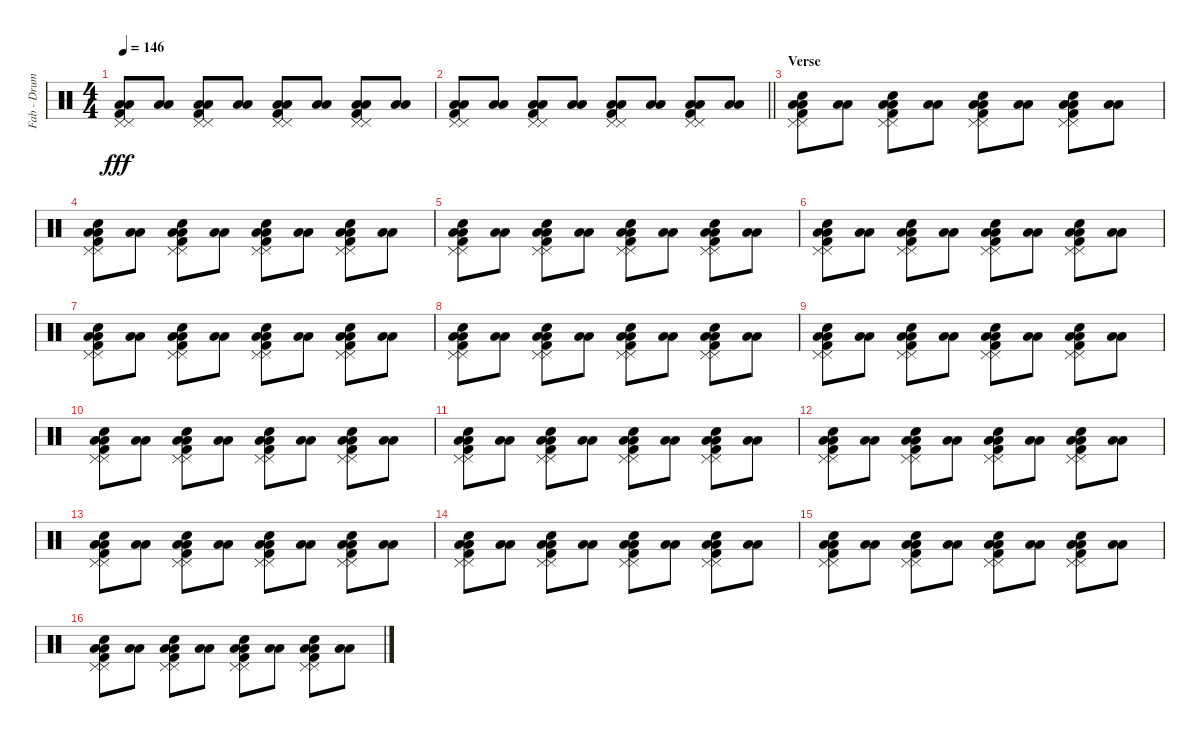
\track ("Fab - Drums MIDI" "Fab - Drum") {instrument percussion}
\staff {score}
\articulation defaults
\ts (4 4)
\tempo 146
\clef neutral
\ks c
("Low Floor Tom (hit)" "Low Floor Tom (hit)" "Kick (hit) 2" "Pedal Hi-Hat (hit)" "Pedal Hi-Hat (hit)").8{dy fff} ("Low Floor Tom (hit)" "Low Floor Tom (hit)").8 ("Low Floor Tom (hit)" "Low Floor Tom (hit)" "Kick (hit) 2" "Pedal Hi-Hat (hit)" "Pedal Hi-Hat (hit)").8 ("Low Floor Tom (hit)" "Low Floor Tom (hit)").8 ("Low Floor Tom (hit)" "Low Floor Tom (hit)" "Kick (hit) 2" "Pedal Hi-Hat (hit)" "Pedal Hi-Hat (hit)").8 ("Low Floor Tom (hit)" "Low Floor Tom (hit)").8 ("Low Floor Tom (hit)" "Low Floor Tom (hit)" "Kick (hit) 2" "Pedal Hi-Hat (hit)" "Pedal Hi-Hat (hit)").8 ("Low Floor Tom (hit)" "Low Floor Tom (hit)").8 |
\barLineRight lightlight
("Low Floor Tom (hit)" "Low Floor Tom (hit)" "Kick (hit) 2" "Pedal Hi-Hat (hit)" "Pedal Hi-Hat (hit)").8 ("Low Floor Tom (hit)" "Low Floor Tom (hit)").8 ("Low Floor Tom (hit)" "Low Floor Tom (hit)" "Kick (hit) 2" "Pedal Hi-Hat (hit)" "Pedal Hi-Hat (hit)").8 ("Low Floor Tom (hit)" "Low Floor Tom (hit)").8 ("Low Floor Tom (hit)" "Low Floor Tom (hit)" "Kick (hit) 2" "Pedal Hi-Hat (hit)" "Pedal Hi-Hat (hit)").8 ("Low Floor Tom (hit)" "Low Floor Tom (hit)").8 ("Low Floor Tom (hit)" "Low Floor Tom (hit)" "Kick (hit) 2" "Pedal Hi-Hat (hit)" "Pedal Hi-Hat (hit)").8 ("Low Floor Tom (hit)" "Low Floor Tom (hit)").8 |
\section ("" "Verse")
("Low Floor Tom (hit)" "Pedal Hi-Hat (hit)" "Snare (hit) 2" "Kick (hit) 2" "Pedal Hi-Hat (hit)" "Low Floor Tom (hit)").8 ("Low Floor Tom (hit)" "Low Floor Tom (hit)").8 ("Low Floor Tom (hit)" "Pedal Hi-Hat (hit)" "Snare (hit) 2" "Kick (hit) 2" "Pedal Hi-Hat (hit)" "Low Floor Tom (hit)").8 ("Low Floor Tom (hit)" "Low Floor Tom (hit)").8 ("Low Floor Tom (hit)" "Pedal Hi-Hat (hit)" "Snare (hit) 2" "Kick (hit) 2" "Pedal Hi-Hat (hit)" "Low Floor Tom (hit)").8 ("Low Floor Tom (hit)" "Low Floor Tom (hit)").8 ("Low Floor Tom (hit)" "Pedal Hi-Hat (hit)" "Snare (hit) 2" "Kick (hit) 2" "Pedal Hi-Hat (hit)" "Low Floor Tom (hit)").8 ("Low Floor Tom (hit)" "Low Floor Tom (hit)").8 |
("Low Floor Tom (hit)" "Pedal Hi-Hat (hit)" "Snare (hit) 2" "Kick (hit) 2" "Pedal Hi-Hat (hit)" "Low Floor Tom (hit)").8 ("Low Floor Tom (hit)" "Low Floor Tom (hit)").8 ("Low Floor Tom (hit)" "Pedal Hi-Hat (hit)" "Snare (hit) 2" "Kick (hit) 2" "Pedal Hi-Hat (hit)" "Low Floor Tom (hit)").8 ("Low Floor Tom (hit)" "Low Floor Tom (hit)").8 ("Low Floor Tom (hit)" "Pedal Hi-Hat (hit)" "Snare (hit) 2" "Kick (hit) 2" "Pedal Hi-Hat (hit)" "Low Floor Tom (hit)").8 ("Low Floor Tom (hit)" "Low Floor Tom (hit)").8 ("Low Floor Tom (hit)" "Pedal Hi-Hat (hit)" "Snare (hit) 2" "Kick (hit) 2" "Pedal Hi-Hat (hit)" "Low Floor Tom (hit)").8 ("Low Floor Tom (hit)" "Low Floor Tom (hit)").8 |
("Low Floor Tom (hit)" "Pedal Hi-Hat (hit)" "Snare (hit) 2" "Kick (hit) 2" "Pedal Hi-Hat (hit)" "Low Floor Tom (hit)").8 ("Low Floor Tom (hit)" "Low Floor Tom (hit)").8 ("Low Floor Tom (hit)" "Pedal Hi-Hat (hit)" "Snare (hit) 2" "Kick (hit) 2" "Pedal Hi-Hat (hit)" "Low Floor Tom (hit)").8 ("Low Floor Tom (hit)" "Low Floor Tom (hit)").8 ("Low Floor Tom (hit)" "Pedal Hi-Hat (hit)" "Snare (hit) 2" "Kick (hit) 2" "Pedal Hi-Hat (hit)" "Low Floor Tom (hit)").8 ("Low Floor Tom (hit)" "Low Floor Tom (hit)").8 ("Low Floor Tom (hit)" "Pedal Hi-Hat (hit)" "Snare (hit) 2" "Kick (hit) 2" "Pedal Hi-Hat (hit)" "Low Floor Tom (hit)").8 ("Low Floor Tom (hit)" "Low Floor Tom (hit)").8 |
("Low Floor Tom (hit)" "Pedal Hi-Hat (hit)" "Snare (hit) 2" "Kick (hit) 2" "Pedal Hi-Hat (hit)" "Low Floor Tom (hit)").8 ("Low Floor Tom (hit)" "Low Floor Tom (hit)").8 ("Low Floor Tom (hit)" "Pedal Hi-Hat (hit)" "Snare (hit) 2" "Kick (hit) 2" "Pedal Hi-Hat (hit)" "Low Floor Tom (hit)").8 ("Low Floor Tom (hit)" "Low Floor Tom (hit)").8 ("Low Floor Tom (hit)" "Pedal Hi-Hat (hit)" "Snare (hit) 2" "Kick (hit) 2" "Pedal Hi-Hat (hit)" "Low Floor Tom (hit)").8 ("Low Floor Tom (hit)" "Low Floor Tom (hit)").8 ("Low Floor Tom (hit)" "Pedal Hi-Hat (hit)" "Snare (hit) 2" "Kick (hit) 2" "Pedal Hi-Hat (hit)" "Low Floor Tom (hit)").8 ("Low Floor Tom (hit)" "Low Floor Tom (hit)").8 |
("Low Floor Tom (hit)" "Pedal Hi-Hat (hit)" "Snare (hit) 2" "Kick (hit) 2" "Pedal Hi-Hat (hit)" "Low Floor Tom (hit)").8 ("Low Floor Tom (hit)" "Low Floor Tom (hit)").8 ("Low Floor Tom (hit)" "Pedal Hi-Hat (hit)" "Snare (hit) 2" "Kick (hit) 2" "Pedal Hi-Hat (hit)" "Low Floor Tom (hit)").8 ("Low Floor Tom (hit)" "Low Floor Tom (hit)").8 ("Low Floor Tom (hit)" "Pedal Hi-Hat (hit)" "Snare (hit) 2" "Kick (hit) 2" "Pedal Hi-Hat (hit)" "Low Floor Tom (hit)").8 ("Low Floor Tom (hit)" "Low Floor Tom (hit)").8 ("Low Floor Tom (hit)" "Pedal Hi-Hat (hit)" "Snare (hit) 2" "Kick (hit) 2" "Pedal Hi-Hat (hit)" "Low Floor Tom (hit)").8 ("Low Floor Tom (hit)" "Low Floor Tom (hit)").8 |
("Low Floor Tom (hit)" "Pedal Hi-Hat (hit)" "Snare (hit) 2" "Kick (hit) 2" "Pedal Hi-Hat (hit)" "Low Floor Tom (hit)").8 ("Low Floor Tom (hit)" "Low Floor Tom (hit)").8 ("Low Floor Tom (hit)" "Pedal Hi-Hat (hit)" "Snare (hit) 2" "Kick (hit) 2" "Pedal Hi-Hat (hit)" "Low Floor Tom (hit)").8 ("Low Floor Tom (hit)" "Low Floor Tom (hit)").8 ("Low Floor Tom (hit)" "Pedal Hi-Hat (hit)" "Snare (hit) 2" "Kick (hit) 2" "Pedal Hi-Hat (hit)" "Low Floor Tom (hit)").8 ("Low Floor Tom (hit)" "Low Floor Tom (hit)").8 ("Low Floor Tom (hit)" "Pedal Hi-Hat (hit)" "Snare (hit) 2" "Kick (hit) 2" "Pedal Hi-Hat (hit)" "Low Floor Tom (hit)").8 ("Low Floor Tom (hit)" "Low Floor Tom (hit)").8 |
("Low Floor Tom (hit)" "Pedal Hi-Hat (hit)" "Snare (hit) 2" "Kick (hit) 2" "Pedal Hi-Hat (hit)" "Low Floor Tom (hit)").8 ("Low Floor Tom (hit)" "Low Floor Tom (hit)").8 ("Low Floor Tom (hit)" "Pedal Hi-Hat (hit)" "Snare (hit) 2" "Kick (hit) 2" "Pedal Hi-Hat (hit)" "Low Floor Tom (hit)").8 ("Low Floor Tom (hit)" "Low Floor Tom (hit)").8 ("Low Floor Tom (hit)" "Pedal Hi-Hat (hit)" "Snare (hit) 2" "Kick (hit) 2" "Pedal Hi-Hat (hit)" "Low Floor Tom (hit)").8 ("Low Floor Tom (hit)" "Low Floor Tom (hit)").8 ("Low Floor Tom (hit)" "Pedal Hi-Hat (hit)" "Snare (hit) 2" "Kick (hit) 2" "Pedal Hi-Hat (hit)" "Low Floor Tom (hit)").8 ("Low Floor Tom (hit)" "Low Floor Tom (hit)").8 |
("Low Floor Tom (hit)" "Pedal Hi-Hat (hit)" "Snare (hit) 2" "Kick (hit) 2" "Pedal Hi-Hat (hit)" "Low Floor Tom (hit)").8 ("Low Floor Tom (hit)" "Low Floor Tom (hit)").8 ("Low Floor Tom (hit)" "Pedal Hi-Hat (hit)" "Snare (hit) 2" "Kick (hit) 2" "Pedal Hi-Hat (hit)" "Low Floor Tom (hit)").8 ("Low Floor Tom (hit)" "Low Floor Tom (hit)").8 ("Low Floor Tom (hit)" "Pedal Hi-Hat (hit)" "Snare (hit) 2" "Kick (hit) 2" "Pedal Hi-Hat (hit)" "Low Floor Tom (hit)").8 ("Low Floor Tom (hit)" "Low Floor Tom (hit)").8 ("Low Floor Tom (hit)" "Pedal Hi-Hat (hit)" "Snare (hit) 2" "Kick (hit) 2" "Pedal Hi-Hat (hit)" "Low Floor Tom (hit)").8 ("Low Floor Tom (hit)" "Low Floor Tom (hit)").8 |
("Low Floor Tom (hit)" "Pedal Hi-Hat (hit)" "Snare (hit) 2" "Kick (hit) 2" "Pedal Hi-Hat (hit)" "Low Floor Tom (hit)").8 ("Low Floor Tom (hit)" "Low Floor Tom (hit)").8 ("Low Floor Tom (hit)" "Pedal Hi-Hat (hit)" "Snare (hit) 2" "Kick (hit) 2" "Pedal Hi-Hat (hit)" "Low Floor Tom (hit)").8 ("Low Floor Tom (hit)" "Low Floor Tom (hit)").8 ("Low Floor Tom (hit)" "Pedal Hi-Hat (hit)" "Snare (hit) 2" "Kick (hit) 2" "Pedal Hi-Hat (hit)" "Low Floor Tom (hit)").8 ("Low Floor Tom (hit)" "Low Floor Tom (hit)").8 ("Low Floor Tom (hit)" "Pedal Hi-Hat (hit)" "Snare (hit) 2" "Kick (hit) 2" "Pedal Hi-Hat (hit)" "Low Floor Tom (hit)").8 ("Low Floor Tom (hit)" "Low Floor Tom (hit)").8 |
("Low Floor Tom (hit)" "Pedal Hi-Hat (hit)" "Snare (hit) 2" "Kick (hit) 2" "Pedal Hi-Hat (hit)" "Low Floor Tom (hit)").8 ("Low Floor Tom (hit)" "Low Floor Tom (hit)").8 ("Low Floor Tom (hit)" "Pedal Hi-Hat (hit)" "Snare (hit) 2" "Kick (hit) 2" "Pedal Hi-Hat (hit)" "Low Floor Tom (hit)").8 ("Low Floor Tom (hit)" "Low Floor Tom (hit)").8 ("Low Floor Tom (hit)" "Pedal Hi-Hat (hit)" "Snare (hit) 2" "Kick (hit) 2" "Pedal Hi-Hat (hit)" "Low Floor Tom (hit)").8 ("Low Floor Tom (hit)" "Low Floor Tom (hit)").8 ("Low Floor Tom (hit)" "Pedal Hi-Hat (hit)" "Snare (hit) 2" "Kick (hit) 2" "Pedal Hi-Hat (hit)" "Low Floor Tom (hit)").8 ("Low Floor Tom (hit)" "Low Floor Tom (hit)").8 |
("Low Floor Tom (hit)" "Pedal Hi-Hat (hit)" "Snare (hit) 2" "Kick (hit) 2" "Pedal Hi-Hat (hit)" "Low Floor Tom (hit)").8 ("Low Floor Tom (hit)" "Low Floor Tom (hit)").8 ("Low Floor Tom (hit)" "Pedal Hi-Hat (hit)" "Snare (hit) 2" "Kick (hit) 2" "Pedal Hi-Hat (hit)" "Low Floor Tom (hit)").8 ("Low Floor Tom (hit)" "Low Floor Tom (hit)").8 ("Low Floor Tom (hit)" "Pedal Hi-Hat (hit)" "Snare (hit) 2" "Kick (hit) 2" "Pedal Hi-Hat (hit)" "Low Floor Tom (hit)").8 ("Low Floor Tom (hit)" "Low Floor Tom (hit)").8 ("Low Floor Tom (hit)" "Pedal Hi-Hat (hit)" "Snare (hit) 2" "Kick (hit) 2" "Pedal Hi-Hat (hit)" "Low Floor Tom (hit)").8 ("Low Floor Tom (hit)" "Low Floor Tom (hit)").8 |
("Low Floor Tom (hit)" "Pedal Hi-Hat (hit)" "Snare (hit) 2" "Kick (hit) 2" "Pedal Hi-Hat (hit)" "Low Floor Tom (hit)").8 ("Low Floor Tom (hit)" "Low Floor Tom (hit)").8 ("Low Floor Tom (hit)" "Pedal Hi-Hat (hit)" "Snare (hit) 2" "Kick (hit) 2" "Pedal Hi-Hat (hit)" "Low Floor Tom (hit)").8 ("Low Floor Tom (hit)" "Low Floor Tom (hit)").8 ("Low Floor Tom (hit)" "Pedal Hi-Hat (hit)" "Snare (hit) 2" "Kick (hit) 2" "Pedal Hi-Hat (hit)" "Low Floor Tom (hit)").8 ("Low Floor Tom (hit)" "Low Floor Tom (hit)").8 ("Low Floor Tom (hit)" "Pedal Hi-Hat (hit)" "Snare (hit) 2" "Kick (hit) 2" "Pedal Hi-Hat (hit)" "Low Floor Tom (hit)").8 ("Low Floor Tom (hit)" "Low Floor Tom (hit)").8 |
("Low Floor Tom (hit)" "Pedal Hi-Hat (hit)" "Snare (hit) 2" "Kick (hit) 2" "Pedal Hi-Hat (hit)" "Low Floor Tom (hit)").8 ("Low Floor Tom (hit)" "Low Floor Tom (hit)").8 ("Low Floor Tom (hit)" "Pedal Hi-Hat (hit)" "Snare (hit) 2" "Kick (hit) 2" "Pedal Hi-Hat (hit)" "Low Floor Tom (hit)").8 ("Low Floor Tom (hit)" "Low Floor Tom (hit)").8 ("Low Floor Tom (hit)" "Pedal Hi-Hat (hit)" "Snare (hit) 2" "Kick (hit) 2" "Pedal Hi-Hat (hit)" "Low Floor Tom (hit)").8 ("Low Floor Tom (hit)" "Low Floor Tom (hit)").8 ("Low Floor Tom (hit)" "Pedal Hi-Hat (hit)" "Snare (hit) 2" "Kick (hit) 2" "Pedal Hi-Hat (hit)" "Low Floor Tom (hit)").8 ("Low Floor Tom (hit)" "Low Floor Tom (hit)").8 |
("Low Floor Tom (hit)" "Pedal Hi-Hat (hit)" "Snare (hit) 2" "Kick (hit) 2" "Pedal Hi-Hat (hit)" "Low Floor Tom (hit)").8 ("Low Floor Tom (hit)" "Low Floor Tom (hit)").8 ("Low Floor Tom (hit)" "Pedal Hi-Hat (hit)" "Snare (hit) 2" "Kick (hit) 2" "Pedal Hi-Hat (hit)" "Low Floor Tom (hit)").8 ("Low Floor Tom (hit)" "Low Floor Tom (hit)").8 ("Low Floor Tom (hit)" "Pedal Hi-Hat (hit)" "Snare (hit) 2" "Kick (hit) 2" "Pedal Hi-Hat (hit)" "Low Floor Tom (hit)").8 ("Low Floor Tom (hit)" "Low Floor Tom (hit)").8 ("Low Floor Tom (hit)" "Pedal Hi-Hat (hit)" "Snare (hit) 2" "Kick (hit) 2" "Pedal Hi-Hat (hit)" "Low Floor Tom (hit)").8 ("Low Floor Tom (hit)" "Low Floor Tom (hit)").8
